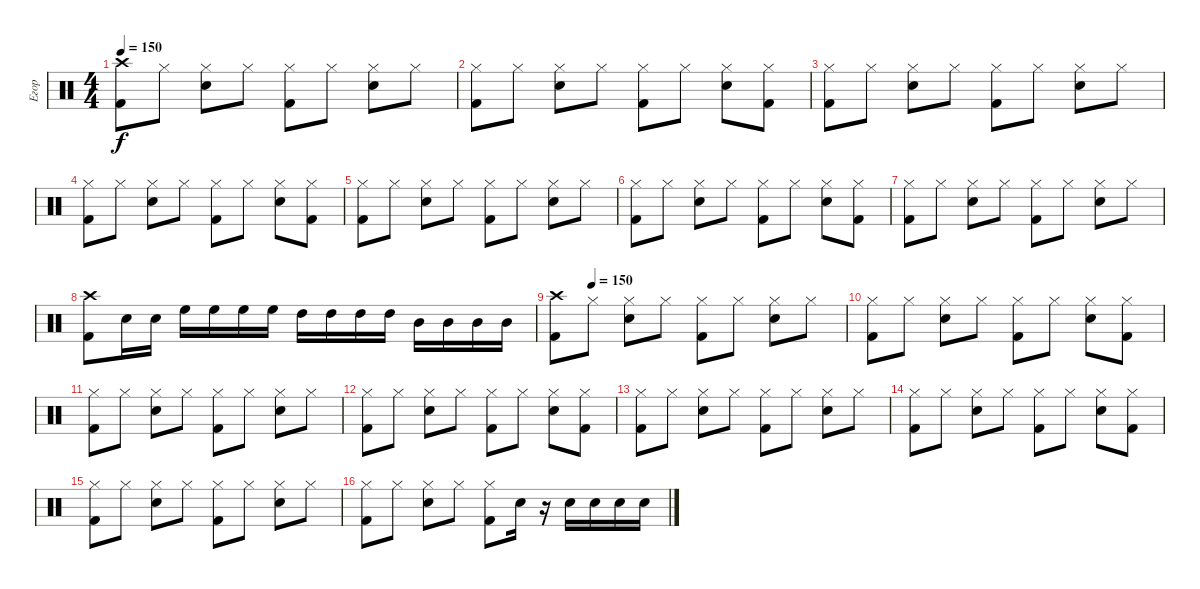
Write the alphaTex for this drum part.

\track ("Егор" "Егор") {instrument percussion}
\staff {score}
\articulation defaults
\ts (4 4)
\tempo 150
\clef neutral
\ks c
("Crash high (hit)" "Kick (hit) 2").8{dy f} "Hi-Hat (closed)".8 ("Hi-Hat (closed)" "Snare (hit) 2").8 "Hi-Hat (closed)".8 ("Hi-Hat (closed)" "Kick (hit) 2").8 "Hi-Hat (closed)".8 ("Hi-Hat (closed)" "Snare (hit) 2").8 "Hi-Hat (closed)".8 |
("Hi-Hat (closed)" "Kick (hit) 2").8 "Hi-Hat (closed)".8 ("Hi-Hat (closed)" "Snare (hit) 2").8 "Hi-Hat (closed)".8 ("Hi-Hat (closed)" "Kick (hit) 2").8 "Hi-Hat (closed)".8 ("Hi-Hat (closed)" "Snare (hit) 2").8 ("Hi-Hat (closed)" "Kick (hit) 2").8 |
("Hi-Hat (closed)" "Kick (hit) 2").8 "Hi-Hat (closed)".8 ("Hi-Hat (closed)" "Snare (hit) 2").8 "Hi-Hat (closed)".8 ("Hi-Hat (closed)" "Kick (hit) 2").8 "Hi-Hat (closed)".8 ("Hi-Hat (closed)" "Snare (hit) 2").8 "Hi-Hat (closed)".8 |
("Hi-Hat (closed)" "Kick (hit) 2").8 "Hi-Hat (closed)".8 ("Hi-Hat (closed)" "Snare (hit) 2").8 "Hi-Hat (closed)".8 ("Hi-Hat (closed)" "Kick (hit) 2").8 "Hi-Hat (closed)".8 ("Hi-Hat (closed)" "Snare (hit) 2").8 ("Hi-Hat (closed)" "Kick (hit) 2").8 |
("Hi-Hat (closed)" "Kick (hit) 2").8 "Hi-Hat (closed)".8 ("Hi-Hat (closed)" "Snare (hit) 2").8 "Hi-Hat (closed)".8 ("Hi-Hat (closed)" "Kick (hit) 2").8 "Hi-Hat (closed)".8 ("Hi-Hat (closed)" "Snare (hit) 2").8 "Hi-Hat (closed)".8 |
("Hi-Hat (closed)" "Kick (hit) 2").8 "Hi-Hat (closed)".8 ("Hi-Hat (closed)" "Snare (hit) 2").8 "Hi-Hat (closed)".8 ("Hi-Hat (closed)" "Kick (hit) 2").8 "Hi-Hat (closed)".8 ("Hi-Hat (closed)" "Snare (hit) 2").8 ("Hi-Hat (closed)" "Kick (hit) 2").8 |
("Hi-Hat (closed)" "Kick (hit) 2").8 "Hi-Hat (closed)".8 ("Hi-Hat (closed)" "Snare (hit) 2").8 "Hi-Hat (closed)".8 ("Hi-Hat (closed)" "Kick (hit) 2").8 "Hi-Hat (closed)".8 ("Hi-Hat (closed)" "Snare (hit) 2").8 "Hi-Hat (closed)".8 |
("Crash high (hit)" "Kick (hit) 2").8 "Snare (hit) 2".16 "Snare (hit) 2".16 "High Floor Tom (hit)".16 "High Floor Tom (hit)".16 "High Floor Tom (hit)".16 "High Floor Tom (hit)".16 "High Tom (hit)".16 "High Tom (hit)".16 "High Tom (hit)".16 "High Tom (hit)".16 "Mid Tom (hit)".16 "Mid Tom (hit)".16 "Mid Tom (hit)".16 "Mid Tom (hit)".16 |
\tempo (150 0.125)
("Crash high (hit)" "Kick (hit) 2").8 "Hi-Hat (closed)".8 ("Hi-Hat (closed)" "Snare (hit) 2").8 "Hi-Hat (closed)".8 ("Hi-Hat (closed)" "Kick (hit) 2").8 "Hi-Hat (closed)".8 ("Hi-Hat (closed)" "Snare (hit) 2").8 "Hi-Hat (closed)".8 |
("Hi-Hat (closed)" "Kick (hit) 2").8 "Hi-Hat (closed)".8 ("Hi-Hat (closed)" "Snare (hit) 2").8 "Hi-Hat (closed)".8 ("Hi-Hat (closed)" "Kick (hit) 2").8 "Hi-Hat (closed)".8 ("Hi-Hat (closed)" "Snare (hit) 2").8 ("Hi-Hat (closed)" "Kick (hit) 2").8 |
("Hi-Hat (closed)" "Kick (hit) 2").8 "Hi-Hat (closed)".8 ("Hi-Hat (closed)" "Snare (hit) 2").8 "Hi-Hat (closed)".8 ("Hi-Hat (closed)" "Kick (hit) 2").8 "Hi-Hat (closed)".8 ("Hi-Hat (closed)" "Snare (hit) 2").8 "Hi-Hat (closed)".8 |
("Hi-Hat (closed)" "Kick (hit) 2").8 "Hi-Hat (closed)".8 ("Hi-Hat (closed)" "Snare (hit) 2").8 "Hi-Hat (closed)".8 ("Hi-Hat (closed)" "Kick (hit) 2").8 "Hi-Hat (closed)".8 ("Hi-Hat (closed)" "Snare (hit) 2").8 ("Hi-Hat (closed)" "Kick (hit) 2").8 |
("Hi-Hat (closed)" "Kick (hit) 2").8 "Hi-Hat (closed)".8 ("Hi-Hat (closed)" "Snare (hit) 2").8 "Hi-Hat (closed)".8 ("Hi-Hat (closed)" "Kick (hit) 2").8 "Hi-Hat (closed)".8 ("Hi-Hat (closed)" "Snare (hit) 2").8 "Hi-Hat (closed)".8 |
("Hi-Hat (closed)" "Kick (hit) 2").8 "Hi-Hat (closed)".8 ("Hi-Hat (closed)" "Snare (hit) 2").8 "Hi-Hat (closed)".8 ("Hi-Hat (closed)" "Kick (hit) 2").8 "Hi-Hat (closed)".8 ("Hi-Hat (closed)" "Snare (hit) 2").8 ("Hi-Hat (closed)" "Kick (hit) 2").8 |
("Hi-Hat (closed)" "Kick (hit) 2").8 "Hi-Hat (closed)".8 ("Hi-Hat (closed)" "Snare (hit) 2").8 "Hi-Hat (closed)".8 ("Hi-Hat (closed)" "Kick (hit) 2").8 "Hi-Hat (closed)".8 ("Hi-Hat (closed)" "Snare (hit) 2").8 "Hi-Hat (closed)".8 |
("Hi-Hat (closed)" "Kick (hit) 2").8 "Hi-Hat (closed)".8 ("Hi-Hat (closed)" "Snare (hit) 2").8 "Hi-Hat (closed)".8 ("Hi-Hat (closed)" "Kick (hit) 2").8 "Snare (hit) 2".16 r.16 "Snare (hit) 2".16 "Snare (hit) 2".16 "Snare (hit) 2".16 "Snare (hit) 2".16
